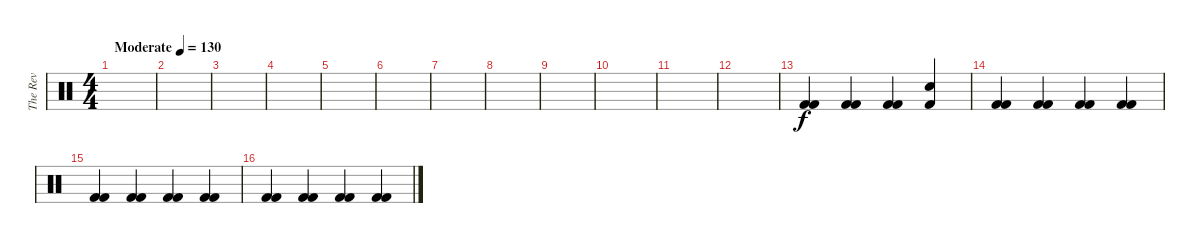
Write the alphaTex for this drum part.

\track ("The Rev" "The Rev") {instrument percussion}
\staff {score}
\articulation defaults
\ts (4 4)
\tempo (130 "Moderate")
\clef neutral
\ks c
|
|
|
|
|
|
|
|
|
|
|
|
("Kick (hit) 2" "Kick (hit) 2").4 ("Kick (hit) 2" "Kick (hit) 2").4 ("Kick (hit) 2" "Kick (hit) 2").4 ("Snare (hit)" "Kick (hit) 2").4 |
("Kick (hit) 2" "Kick (hit) 2").4 ("Kick (hit) 2" "Kick (hit) 2").4 ("Kick (hit) 2" "Kick (hit) 2").4 ("Kick (hit) 2" "Kick (hit) 2").4 |
("Kick (hit) 2" "Kick (hit) 2").4 ("Kick (hit) 2" "Kick (hit) 2").4 ("Kick (hit) 2" "Kick (hit) 2").4 ("Kick (hit) 2" "Kick (hit) 2").4 |
("Kick (hit) 2" "Kick (hit) 2").4 ("Kick (hit) 2" "Kick (hit) 2").4 ("Kick (hit) 2" "Kick (hit) 2").4 ("Kick (hit) 2" "Kick (hit) 2").4
